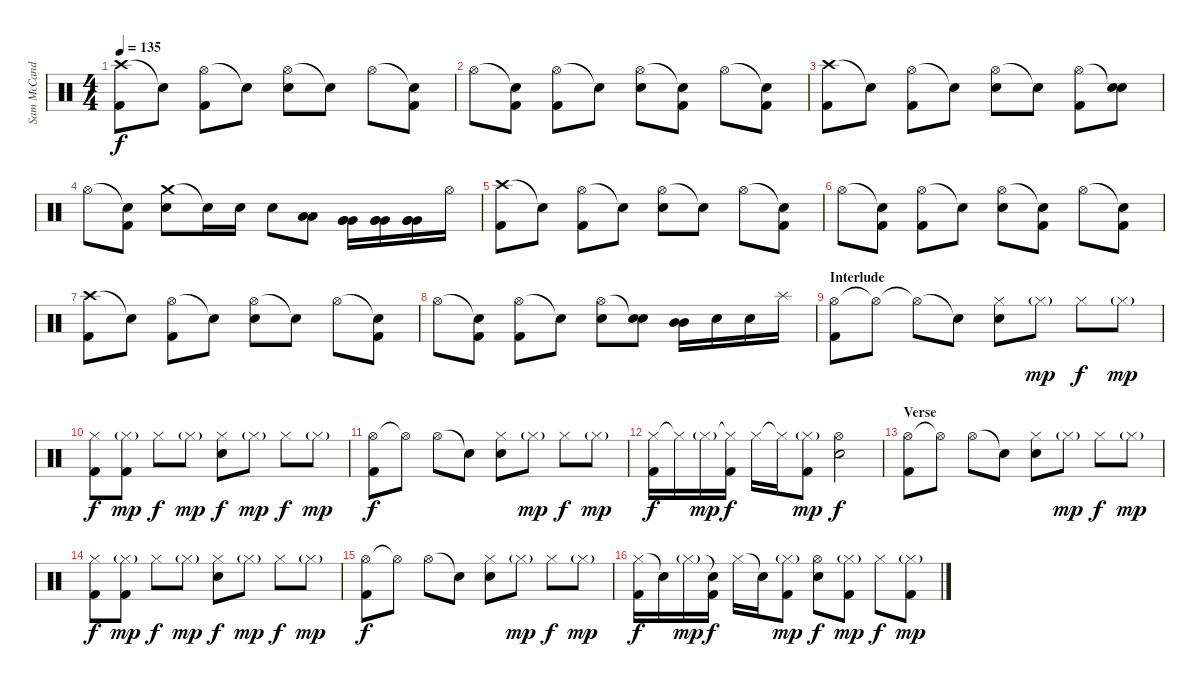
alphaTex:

\track ("Sam McCandless (Drums)" "Sam McCand") {instrument percussion}
\staff {score}
\articulation defaults
\ts (4 4)
\tempo 135
\clef neutral
\ks c
("Crash high (hit)" "Kick (hit) 2").8{dy f} "Snare (hit)"{t}.8 ("Hi-Hat (open)" "Kick (hit) 2").8 "Snare (hit)"{t}.8 ("Hi-Hat (open)" "Electric Snare (hit)").8 "Snare (hit)"{t}.8 "Hi-Hat (open)".8 ("Snare (hit)"{t} "Kick (hit) 2").8 |
"Hi-Hat (open)".8 ("Snare (hit)"{t} "Kick (hit) 2").8 ("Hi-Hat (open)" "Kick (hit) 2").8 "Snare (hit)"{t}.8 ("Hi-Hat (open)" "Electric Snare (hit)").8 ("Snare (hit)"{t} "Kick (hit) 2").8 "Hi-Hat (open)".8 ("Snare (hit)"{t} "Kick (hit) 2").8 |
("Crash high (hit)" "Kick (hit) 2").8 "Snare (hit)"{t}.8 ("Hi-Hat (open)" "Kick (hit) 2").8 "Snare (hit)"{t}.8 ("Hi-Hat (open)" "Electric Snare (hit)").8 "Snare (hit)"{t}.8 ("Hi-Hat (open)" "Kick (hit) 2").8 ("Snare (hit)"{t} "Electric Snare (hit)").8 |
"Hi-Hat (open)".8 ("Snare (hit)"{t} "Kick (hit) 2").8 ("Crash medium (hit)" "Electric Snare (hit)").8 "Snare (hit)"{t}.16 "Electric Snare (hit)".16 "Electric Snare (hit)".8 ("Low Tom (hit)" "Low Tom (hit)").8 ("Very Low Tom (hit)" "Very Low Tom (hit)" "Very Low Tom (hit)").16 ("Very Low Tom (hit)" "Very Low Tom (hit)" "Very Low Tom (hit)").16 ("Very Low Tom (hit)" "Very Low Tom (hit)" "Very Low Tom (hit)").16 "Hi-Hat (open)".16 |
("Crash high (hit)" "Kick (hit) 2").8 "Snare (hit)"{t}.8 ("Hi-Hat (open)" "Kick (hit) 2").8 "Snare (hit)"{t}.8 ("Hi-Hat (open)" "Electric Snare (hit)").8 "Snare (hit)"{t}.8 "Hi-Hat (open)".8 ("Snare (hit)"{t} "Kick (hit) 2").8 |
"Hi-Hat (open)".8 ("Snare (hit)"{t} "Kick (hit) 2").8 ("Hi-Hat (open)" "Kick (hit) 2").8 "Snare (hit)"{t}.8 ("Hi-Hat (open)" "Electric Snare (hit)").8 ("Snare (hit)"{t} "Kick (hit) 2").8 "Hi-Hat (open)".8 ("Snare (hit)"{t} "Kick (hit) 2").8 |
("Crash high (hit)" "Kick (hit) 2").8 "Snare (hit)"{t}.8 ("Hi-Hat (open)" "Kick (hit) 2").8 "Snare (hit)"{t}.8 ("Hi-Hat (open)" "Electric Snare (hit)").8 "Snare (hit)"{t}.8 "Hi-Hat (open)".8 ("Snare (hit)"{t} "Kick (hit) 2").8 |
"Hi-Hat (open)".8 ("Snare (hit)"{t} "Kick (hit) 2").8 ("Hi-Hat (open)" "Kick (hit) 2").8 "Snare (hit)"{t}.8 ("Hi-Hat (open)" "Electric Snare (hit)").8 ("Snare (hit)"{t} "Electric Snare (hit)").8 ("Mid Tom (hit)" "Mid Tom (hit)").16 "Electric Snare (hit)".16 "Electric Snare (hit)".16 "Splash (hit)".16 |
\section ("" "Interlude")
("Hi-Hat (open)" "Kick (hit) 2").8 "Hi-Hat (open)"{t}.8 "Hi-Hat (open)"{t}.8 "Snare (hit)"{t}.8 ("Hi-Hat (closed)" "Electric Snare (hit)").8 "Hi-Hat (closed)"{g}.8{dy mp} "Hi-Hat (closed)".8{dy f} "Hi-Hat (closed)"{g}.8{dy mp} |
("Hi-Hat (closed)" "Kick (hit) 2").8{dy f} ("Hi-Hat (closed)"{g} "Kick (hit) 2").8{dy mp} "Hi-Hat (closed)".8{dy f} "Hi-Hat (closed)"{g}.8{dy mp} ("Hi-Hat (closed)" "Electric Snare (hit)").8{dy f} "Hi-Hat (closed)"{g}.8{dy mp} "Hi-Hat (closed)".8{dy f} "Hi-Hat (closed)"{g}.8{dy mp} |
("Hi-Hat (open)" "Kick (hit) 2").8{dy f} "Hi-Hat (open)"{t}.8 "Hi-Hat (open)".8 "Snare (hit)"{t}.8 ("Hi-Hat (closed)" "Electric Snare (hit)").8 "Hi-Hat (closed)"{g}.8{dy mp} "Hi-Hat (closed)".8{dy f} "Hi-Hat (closed)"{g}.8{dy mp} |
("Hi-Hat (closed)" "Kick (hit) 2").16{dy f} "Hi-Hat (closed)"{t}.16 "Hi-Hat (closed)"{g}.16{dy mp} ("Hi-Hat (closed)"{t} "Kick (hit) 2").16{dy f} "Hi-Hat (closed)".16 "Hi-Hat (closed)"{t}.16 ("Hi-Hat (closed)"{g} "Kick (hit) 2").8{dy mp} ("Hi-Hat (open)" "Electric Snare (hit)").2{dy f} |
\section ("" "Verse")
("Hi-Hat (open)" "Kick (hit) 2").8 "Hi-Hat (open)"{t}.8 "Hi-Hat (open)".8 "Snare (hit)"{t}.8 ("Hi-Hat (closed)" "Electric Snare (hit)").8 "Hi-Hat (closed)"{g}.8{dy mp} "Hi-Hat (closed)".8{dy f} "Hi-Hat (closed)"{g}.8{dy mp} |
("Hi-Hat (closed)" "Kick (hit) 2").8{dy f} ("Hi-Hat (closed)"{g} "Kick (hit) 2").8{dy mp} "Hi-Hat (closed)".8{dy f} "Hi-Hat (closed)"{g}.8{dy mp} ("Hi-Hat (closed)" "Electric Snare (hit)").8{dy f} "Hi-Hat (closed)"{g}.8{dy mp} "Hi-Hat (closed)".8{dy f} "Hi-Hat (closed)"{g}.8{dy mp} |
("Hi-Hat (open)" "Kick (hit) 2").8{dy f} "Hi-Hat (open)"{t}.8 "Hi-Hat (open)".8 "Snare (hit)"{t}.8 ("Hi-Hat (closed)" "Electric Snare (hit)").8 "Hi-Hat (closed)"{g}.8{dy mp} "Hi-Hat (closed)".8{dy f} "Hi-Hat (closed)"{g}.8{dy mp} |
("Hi-Hat (closed)" "Kick (hit) 2").16{dy f} "Snare (hit)"{t}.16 "Hi-Hat (closed)"{g}.16{dy mp} ("Snare (hit)"{t} "Kick (hit) 2").16{dy f} "Hi-Hat (closed)".16 "Snare (hit)"{t}.16 ("Hi-Hat (closed)"{g} "Kick (hit) 2").8{dy mp} ("Hi-Hat (open)" "Electric Snare (hit)").8{dy f} ("Hi-Hat (closed)"{g} "Kick (hit) 2").8{dy mp} "Hi-Hat (closed)".8{dy f} ("Hi-Hat (closed)"{g} "Kick (hit) 2").8{dy mp}
